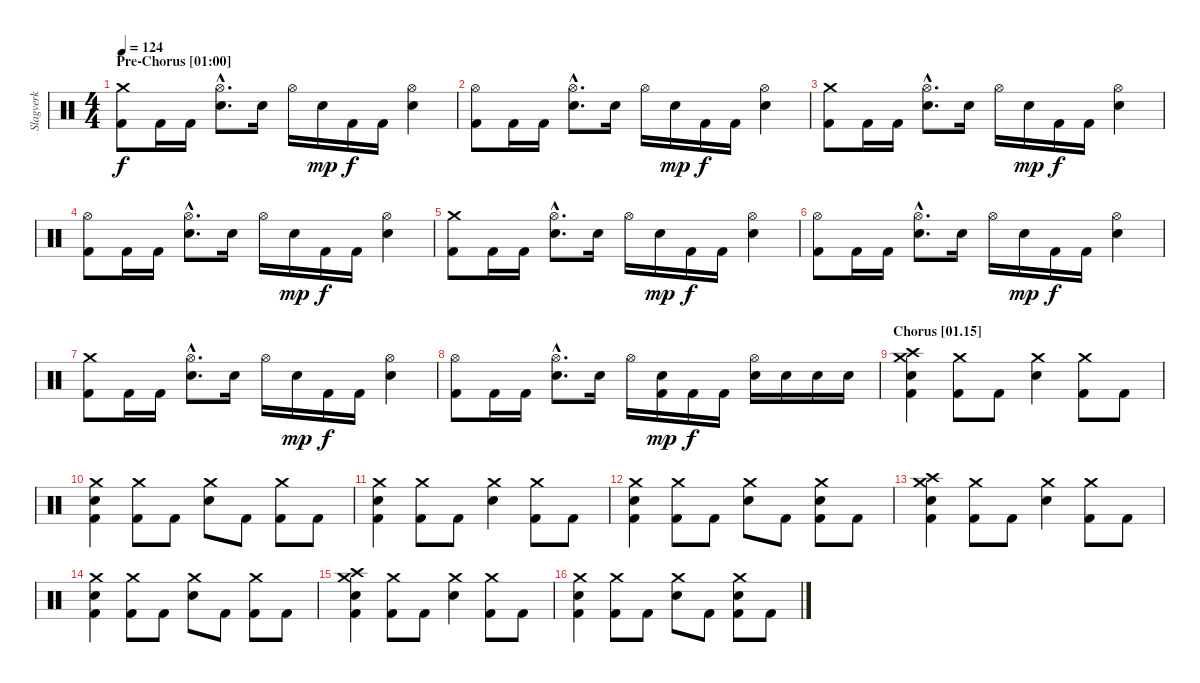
\track ("Slagverk" "Slagverk") {instrument percussion}
\staff {score}
\articulation defaults
\ts (4 4)
\section ("" "Pre-Chorus [01:00]")
\tempo 124
\clef neutral
\ks c
("Crash medium (hit)" "Kick (hit) 2").8{dy f} "Kick (hit) 2".16 "Kick (hit) 2".16 ("Hi-Hat (open)"{hac} "Electric Snare (hit)"{hac}).8{d} "Electric Snare (hit)".16 "Hi-Hat (open)".16 "Electric Snare (hit)".16{dy mp} "Kick (hit) 2".16{dy f} "Kick (hit) 2".16 ("Hi-Hat (open)" "Electric Snare (hit)").4 |
("Hi-Hat (open)" "Kick (hit) 2").8 "Kick (hit) 2".16 "Kick (hit) 2".16 ("Hi-Hat (open)"{hac} "Electric Snare (hit)"{hac}).8{d} "Electric Snare (hit)".16 "Hi-Hat (open)".16 "Electric Snare (hit)".16{dy mp} "Kick (hit) 2".16{dy f} "Kick (hit) 2".16 ("Hi-Hat (open)" "Electric Snare (hit)").4 |
("Crash medium (hit)" "Kick (hit) 2").8 "Kick (hit) 2".16 "Kick (hit) 2".16 ("Hi-Hat (open)"{hac} "Electric Snare (hit)"{hac}).8{d} "Electric Snare (hit)".16 "Hi-Hat (open)".16 "Electric Snare (hit)".16{dy mp} "Kick (hit) 2".16{dy f} "Kick (hit) 2".16 ("Hi-Hat (open)" "Electric Snare (hit)").4 |
("Hi-Hat (open)" "Kick (hit) 2").8 "Kick (hit) 2".16 "Kick (hit) 2".16 ("Hi-Hat (open)"{hac} "Electric Snare (hit)"{hac}).8{d} "Electric Snare (hit)".16 "Hi-Hat (open)".16 "Electric Snare (hit)".16{dy mp} "Kick (hit) 2".16{dy f} "Kick (hit) 2".16 ("Hi-Hat (open)" "Electric Snare (hit)").4 |
("Crash medium (hit)" "Kick (hit) 2").8 "Kick (hit) 2".16 "Kick (hit) 2".16 ("Hi-Hat (open)"{hac} "Electric Snare (hit)"{hac}).8{d} "Electric Snare (hit)".16 "Hi-Hat (open)".16 "Electric Snare (hit)".16{dy mp} "Kick (hit) 2".16{dy f} "Kick (hit) 2".16 ("Hi-Hat (open)" "Electric Snare (hit)").4 |
("Hi-Hat (open)" "Kick (hit) 2").8 "Kick (hit) 2".16 "Kick (hit) 2".16 ("Hi-Hat (open)"{hac} "Electric Snare (hit)"{hac}).8{d} "Electric Snare (hit)".16 "Hi-Hat (open)".16 "Electric Snare (hit)".16{dy mp} "Kick (hit) 2".16{dy f} "Kick (hit) 2".16 ("Hi-Hat (open)" "Electric Snare (hit)").4 |
("Crash medium (hit)" "Kick (hit) 2").8 "Kick (hit) 2".16 "Kick (hit) 2".16 ("Hi-Hat (open)"{hac} "Electric Snare (hit)"{hac}).8{d} "Electric Snare (hit)".16 "Hi-Hat (open)".16 "Electric Snare (hit)".16{dy mp} "Kick (hit) 2".16{dy f} "Kick (hit) 2".16 ("Hi-Hat (open)" "Electric Snare (hit)").4 |
("Hi-Hat (open)" "Kick (hit) 2").8 "Kick (hit) 2".16 "Kick (hit) 2".16 ("Hi-Hat (open)"{hac} "Electric Snare (hit)"{hac}).8{d} "Electric Snare (hit)".16 "Hi-Hat (open)".16 ("Electric Snare (hit)" "Kick (hit) 2").16{dy mp} "Kick (hit) 2".16{dy f} "Kick (hit) 2".16 ("Hi-Hat (open)" "Electric Snare (hit)").16 "Electric Snare (hit)".16 "Electric Snare (hit)".16 "Electric Snare (hit)".16 |
\section ("" "Chorus [01.15]")
("Crash medium (hit)" "Crash high (hit)" "Electric Snare (hit)" "Kick (hit) 2").4 ("Crash medium (hit)" "Kick (hit) 2").8 "Kick (hit) 2".8 ("Crash medium (hit)" "Electric Snare (hit)").4 ("Crash medium (hit)" "Kick (hit) 2").8 "Kick (hit) 2".8 |
("Crash medium (hit)" "Electric Snare (hit)" "Kick (hit) 2").4 ("Crash medium (hit)" "Kick (hit) 2").8 "Kick (hit) 2".8 ("Crash medium (hit)" "Electric Snare (hit)").8 "Kick (hit) 2".8 ("Crash medium (hit)" "Kick (hit) 2").8 "Kick (hit) 2".8 |
("Crash medium (hit)" "Electric Snare (hit)" "Kick (hit) 2").4 ("Crash medium (hit)" "Kick (hit) 2").8 "Kick (hit) 2".8 ("Crash medium (hit)" "Electric Snare (hit)").4 ("Crash medium (hit)" "Kick (hit) 2").8 "Kick (hit) 2".8 |
("Crash medium (hit)" "Electric Snare (hit)" "Kick (hit) 2").4 ("Crash medium (hit)" "Kick (hit) 2").8 "Kick (hit) 2".8 ("Crash medium (hit)" "Electric Snare (hit)").8 "Kick (hit) 2".8 ("Crash medium (hit)" "Electric Snare (hit)" "Kick (hit) 2").8 "Kick (hit) 2".8 |
("Crash medium (hit)" "Crash high (hit)" "Electric Snare (hit)" "Kick (hit) 2").4 ("Crash medium (hit)" "Kick (hit) 2").8 "Kick (hit) 2".8 ("Crash medium (hit)" "Electric Snare (hit)").4 ("Crash medium (hit)" "Kick (hit) 2").8 "Kick (hit) 2".8 |
("Crash medium (hit)" "Electric Snare (hit)" "Kick (hit) 2").4 ("Crash medium (hit)" "Kick (hit) 2").8 "Kick (hit) 2".8 ("Crash medium (hit)" "Electric Snare (hit)").8 "Kick (hit) 2".8 ("Crash medium (hit)" "Kick (hit) 2").8 "Kick (hit) 2".8 |
("Crash medium (hit)" "Crash high (hit)" "Electric Snare (hit)" "Kick (hit) 2").4 ("Crash medium (hit)" "Kick (hit) 2").8 "Kick (hit) 2".8 ("Crash medium (hit)" "Electric Snare (hit)").4 ("Crash medium (hit)" "Kick (hit) 2").8 "Kick (hit) 2".8 |
("Crash medium (hit)" "Electric Snare (hit)" "Kick (hit) 2").4 ("Crash medium (hit)" "Kick (hit) 2").8 "Kick (hit) 2".8 ("Crash medium (hit)" "Electric Snare (hit)").8 "Kick (hit) 2".8 ("Crash medium (hit)" "Electric Snare (hit)" "Kick (hit) 2").8 "Kick (hit) 2".8
